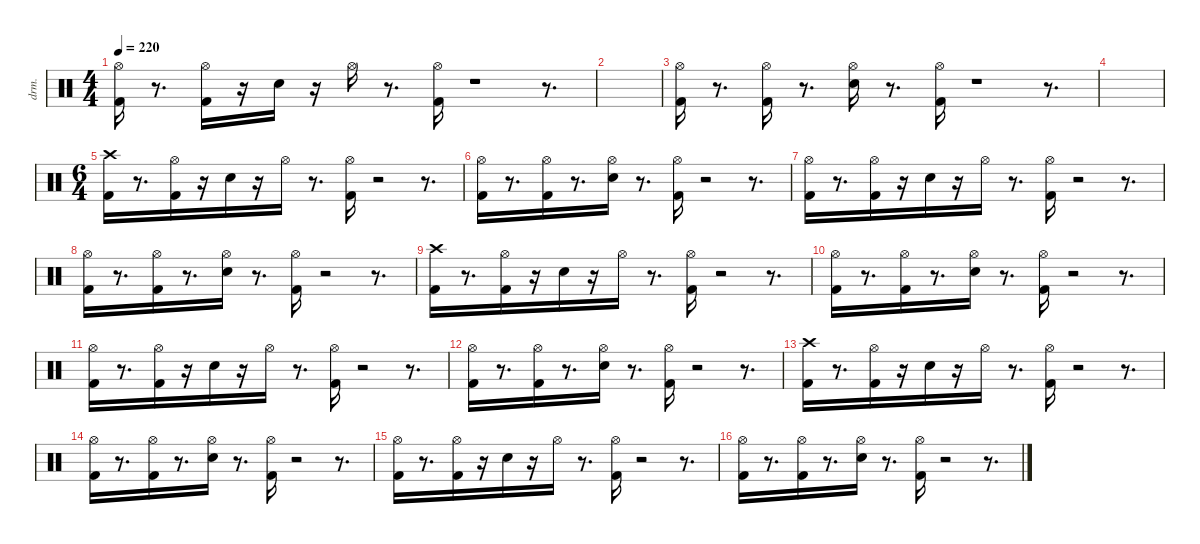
\defaultSystemsLayout 4
\hideDynamics
\bracketExtendMode nobrackets
\otherSystemsTrackNameOrientation horizontal
\track ("EZdrummer 3" "drm.") {mute instrument percussion}
\staff {score}
\articulation defaults
\ts (4 4)
\tempo 220
\clef neutral
\ks c
("Kick (hit) 2" "Hi-Hat (open)"{acc #}).16{dy fff beam Down} r.8{d beam Down} ("Kick (hit) 2" "Hi-Hat (open)"{acc #}).16{dy ff beam Down} r.16{beam Down} "Snare (hit) 2".16{beam Down} r.16{beam Down} "Hi-Hat (open)"{acc #}.16{beam Down} r.8{d beam Down} ("Kick (hit) 2" "Hi-Hat (open)"{acc #}).16{beam Down} r.1{beam Down} r.8{d beam Down} |
|
("Kick (hit) 2" "Hi-Hat (open)"{acc #}).16{beam Down} r.8{d beam Down} ("Kick (hit) 2" "Hi-Hat (open)"{acc #}).16{beam Down} r.8{d beam Down} ("Snare (hit) 2" "Hi-Hat (open)"{acc #}).16{beam Down} r.8{d beam Down} ("Kick (hit) 2" "Hi-Hat (open)"{acc #}).16{dy mf beam Down} r.1{beam Down} r.8{d beam Down} |
|
\ts (6 4)
\beaming (8 6 6)
("Kick (hit) 2" "Crash high (hit)"{acc #}).16{dy fff beam Down} r.8{d beam Down} ("Kick (hit) 2" "Hi-Hat (open)"{acc #}).16{dy ff beam Down} r.16{beam Down} "Snare (hit) 2".16{beam Down} r.16{beam Down} "Hi-Hat (open)"{acc #}.16{beam Down} r.8{d beam Down} ("Kick (hit) 2" "Hi-Hat (open)"{acc #}).16{beam Down} r.2{beam Down} r.8{d beam Down} |
("Kick (hit) 2" "Hi-Hat (open)"{acc #}).16{beam Down} r.8{d beam Down} ("Kick (hit) 2" "Hi-Hat (open)"{acc #}).16{beam Down} r.8{d beam Down} ("Snare (hit) 2" "Hi-Hat (open)"{acc #}).16{beam Down} r.8{d beam Down} ("Kick (hit) 2" "Hi-Hat (open)"{acc #}).16{dy mf beam Down} r.2{beam Down} r.8{d beam Down} |
("Kick (hit) 2" "Hi-Hat (open)"{acc #}).16{dy fff beam Down} r.8{d beam Down} ("Kick (hit) 2" "Hi-Hat (open)"{acc #}).16{dy ff beam Down} r.16{beam Down} "Snare (hit) 2".16{beam Down} r.16{beam Down} "Hi-Hat (open)"{acc #}.16{beam Down} r.8{d beam Down} ("Kick (hit) 2" "Hi-Hat (open)"{acc #}).16{beam Down} r.2{beam Down} r.8{d beam Down} |
("Kick (hit) 2" "Hi-Hat (open)"{acc #}).16{beam Down} r.8{d beam Down} ("Kick (hit) 2" "Hi-Hat (open)"{acc #}).16{beam Down} r.8{d beam Down} ("Snare (hit) 2" "Hi-Hat (open)"{acc #}).16{beam Down} r.8{d beam Down} ("Kick (hit) 2" "Hi-Hat (open)"{acc #}).16{dy mf beam Down} r.2{beam Down} r.8{d beam Down} |
("Kick (hit) 2" "Crash high (hit)"{acc #}).16{dy fff beam Down} r.8{d beam Down} ("Kick (hit) 2" "Hi-Hat (open)"{acc #}).16{dy ff beam Down} r.16{beam Down} "Snare (hit) 2".16{beam Down} r.16{beam Down} "Hi-Hat (open)"{acc #}.16{beam Down} r.8{d beam Down} ("Kick (hit) 2" "Hi-Hat (open)"{acc #}).16{beam Down} r.2{beam Down} r.8{d beam Down} |
("Kick (hit) 2" "Hi-Hat (open)"{acc #}).16{beam Down} r.8{d beam Down} ("Kick (hit) 2" "Hi-Hat (open)"{acc #}).16{beam Down} r.8{d beam Down} ("Snare (hit) 2" "Hi-Hat (open)"{acc #}).16{beam Down} r.8{d beam Down} ("Kick (hit) 2" "Hi-Hat (open)"{acc #}).16{dy mf beam Down} r.2{beam Down} r.8{d beam Down} |
("Kick (hit) 2" "Hi-Hat (open)"{acc #}).16{dy fff beam Down} r.8{d beam Down} ("Kick (hit) 2" "Hi-Hat (open)"{acc #}).16{dy ff beam Down} r.16{beam Down} "Snare (hit) 2".16{beam Down} r.16{beam Down} "Hi-Hat (open)"{acc #}.16{beam Down} r.8{d beam Down} ("Kick (hit) 2" "Hi-Hat (open)"{acc #}).16{beam Down} r.2{beam Down} r.8{d beam Down} |
("Kick (hit) 2" "Hi-Hat (open)"{acc #}).16{beam Down} r.8{d beam Down} ("Kick (hit) 2" "Hi-Hat (open)"{acc #}).16{beam Down} r.8{d beam Down} ("Snare (hit) 2" "Hi-Hat (open)"{acc #}).16{beam Down} r.8{d beam Down} ("Kick (hit) 2" "Hi-Hat (open)"{acc #}).16{dy mf beam Down} r.2{beam Down} r.8{d beam Down} |
("Kick (hit) 2" "Crash high (hit)"{acc #}).16{dy fff beam Down} r.8{d beam Down} ("Kick (hit) 2" "Hi-Hat (open)"{acc #}).16{dy ff beam Down} r.16{beam Down} "Snare (hit) 2".16{beam Down} r.16{beam Down} "Hi-Hat (open)"{acc #}.16{beam Down} r.8{d beam Down} ("Kick (hit) 2" "Hi-Hat (open)"{acc #}).16{beam Down} r.2{beam Down} r.8{d beam Down} |
("Kick (hit) 2" "Hi-Hat (open)"{acc #}).16{beam Down} r.8{d beam Down} ("Kick (hit) 2" "Hi-Hat (open)"{acc #}).16{beam Down} r.8{d beam Down} ("Snare (hit) 2" "Hi-Hat (open)"{acc #}).16{beam Down} r.8{d beam Down} ("Kick (hit) 2" "Hi-Hat (open)"{acc #}).16{dy mf beam Down} r.2{beam Down} r.8{d beam Down} |
("Kick (hit) 2" "Hi-Hat (open)"{acc #}).16{dy fff beam Down} r.8{d beam Down} ("Kick (hit) 2" "Hi-Hat (open)"{acc #}).16{dy ff beam Down} r.16{beam Down} "Snare (hit) 2".16{beam Down} r.16{beam Down} "Hi-Hat (open)"{acc #}.16{beam Down} r.8{d beam Down} ("Kick (hit) 2" "Hi-Hat (open)"{acc #}).16{beam Down} r.2{beam Down} r.8{d beam Down} |
("Kick (hit) 2" "Hi-Hat (open)"{acc #}).16{beam Down} r.8{d beam Down} ("Kick (hit) 2" "Hi-Hat (open)"{acc #}).16{beam Down} r.8{d beam Down} ("Snare (hit) 2" "Hi-Hat (open)"{acc #}).16{beam Down} r.8{d beam Down} ("Kick (hit) 2" "Hi-Hat (open)"{acc #}).16{dy mf beam Down} r.2{beam Down} r.8{d beam Down}
